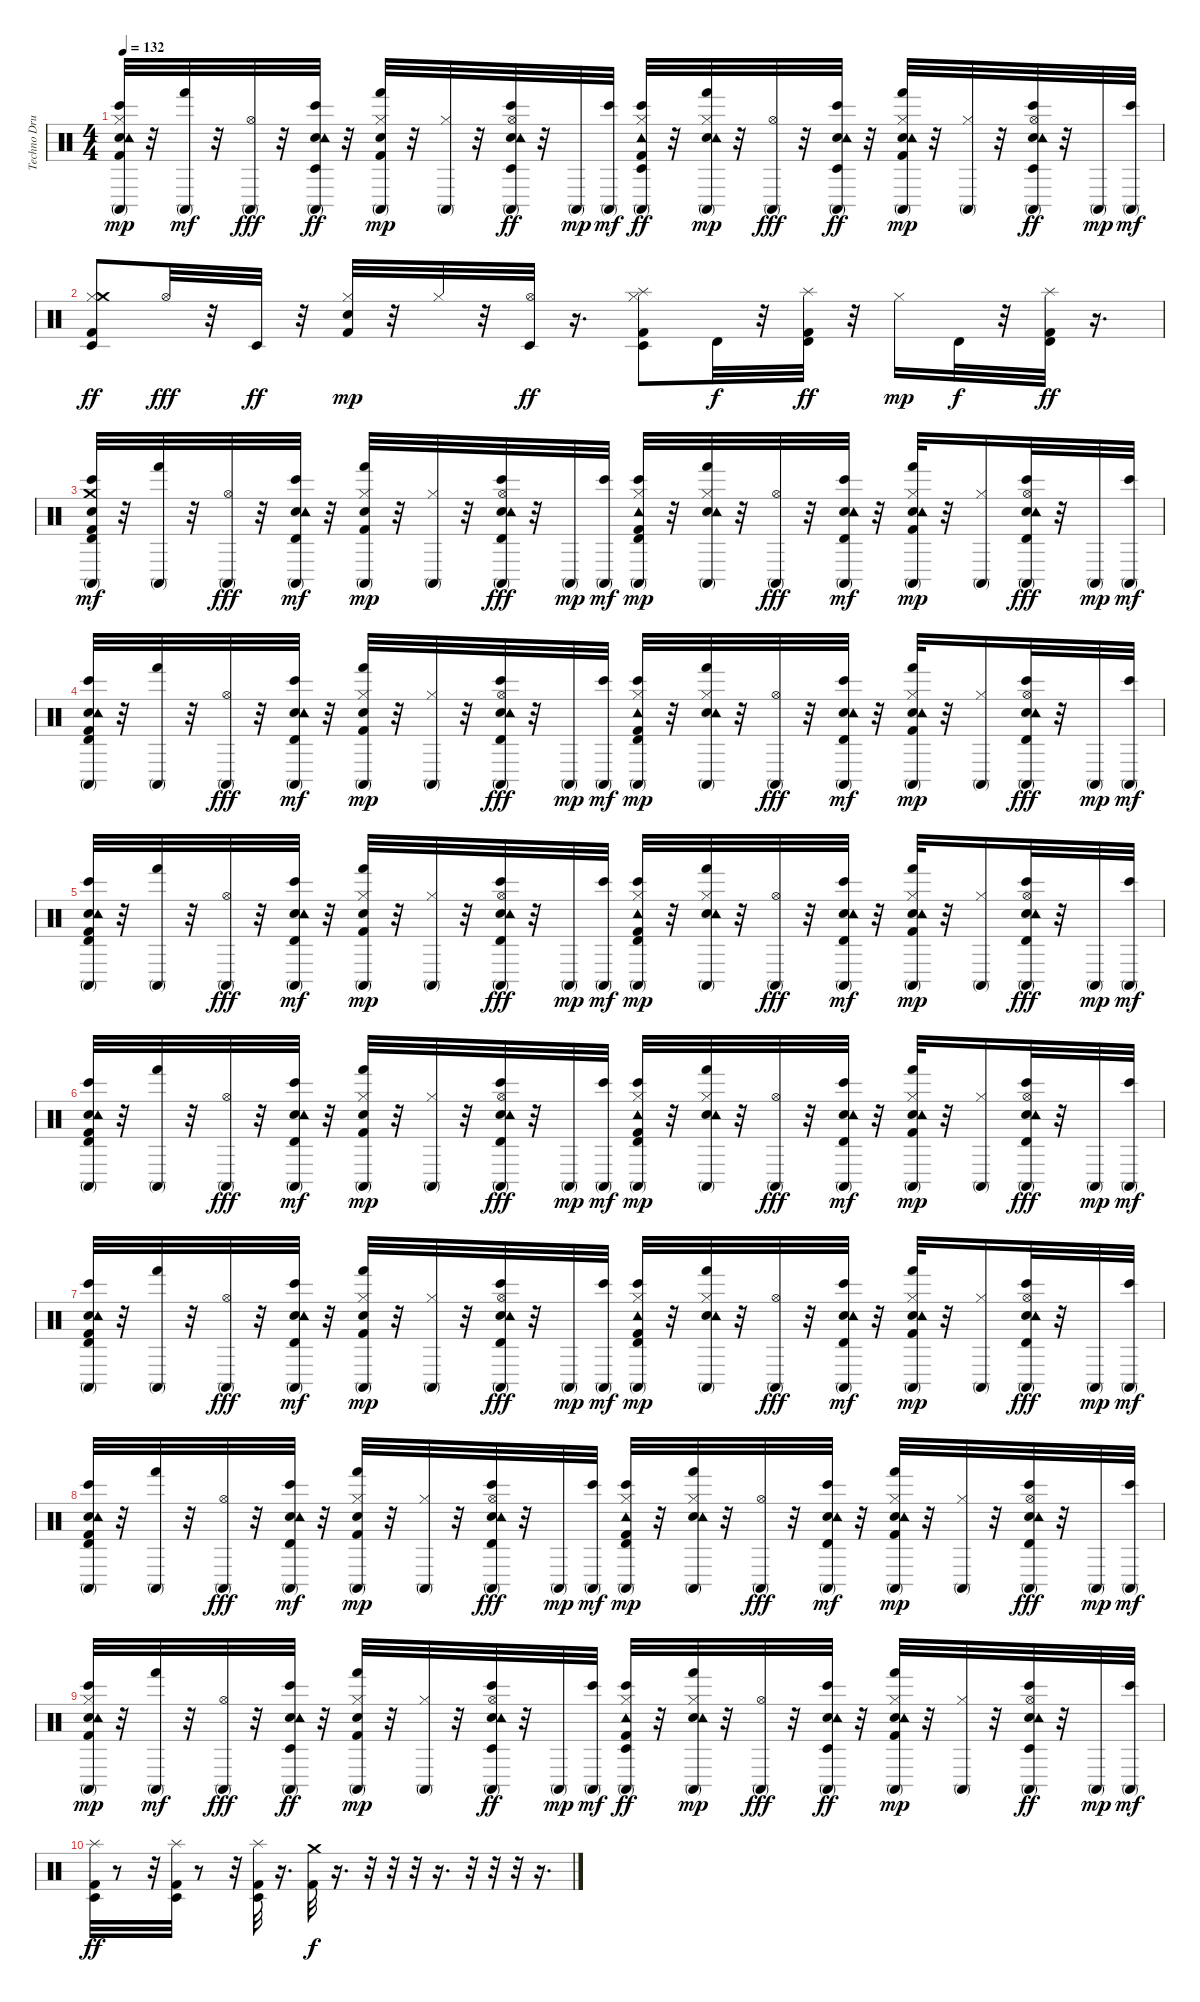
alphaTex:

\track ("Techno Drums" "Techno Dru") {instrument percussion}
\staff {score}
\articulation defaults
\ts (4 4)
\tempo 132
\clef neutral
\ks c
("Kick (hit) 2" "Hand Clap (hit)" "Tambourine (hit)" "Conga high (mute)" "Bongo High (hit)" "Hi-Hat (closed)").32{dy mp} r.32 ("Conga high (mute)" "Hand (hit)").32{dy mf} r.32 ("Conga high (mute)" "Hi-Hat (open)").32{dy fff} r.32 ("Hand Clap (hit)" "Tambourine (hit)" "Conga high (mute)" "Bongo High (hit)" "Timbale low (hit)").32{dy ff} r.32 ("Kick (hit) 2" "Hand Clap (hit)" "Conga high (mute)" "Hand (hit)" "Hi-Hat (closed)").32{dy mp} r.32 ("Conga high (mute)" "Hi-Hat (closed)").32 r.32 ("Hand Clap (hit)" "Tambourine (hit)" "Conga high (mute)" "Bongo High (hit)" "Hi-Hat (open)" "Timbale low (hit)").32{dy ff} r.32 "Conga high (mute)".32{dy mp} ("Conga high (mute)" "Bongo High (hit)").32{dy mf} ("Kick (hit) 2" "Tambourine (hit)" "Conga high (mute)" "Bongo High (hit)" "Hi-Hat (closed)" "Timbale low (hit)").32{dy ff} r.32 ("Hand Clap (hit)" "Tambourine (hit)" "Conga high (mute)" "Hand (hit)" "Hi-Hat (closed)").32{dy mp} r.32 ("Conga high (mute)" "Hi-Hat (open)").32{dy fff} r.32 ("Hand Clap (hit)" "Tambourine (hit)" "Conga high (mute)" "Bongo High (hit)" "Timbale low (hit)").32{dy ff} r.32 ("Kick (hit) 2" "Hand Clap (hit)" "Tambourine (hit)" "Conga high (mute)" "Hand (hit)" "Hi-Hat (closed)").32{dy mp} r.32 ("Conga high (mute)" "Hi-Hat (closed)").32 r.32 ("Hand Clap (hit)" "Tambourine (hit)" "Conga high (mute)" "Bongo High (hit)" "Hi-Hat (open)" "Timbale low (hit)").32{dy ff} r.32 "Conga high (mute)".32{dy mp} ("Conga high (mute)" "Bongo High (hit)").32{dy mf} |
("Kick (hit) 2" "Hi-Hat (closed)" "Timbale low (hit)" "Crash medium (hit)").8{dy ff} "Hi-Hat (open)".32{dy fff} r.32 "Timbale low (hit)".32{dy ff} r.32 ("Kick (hit) 2" "Hand Clap (hit)" "Hi-Hat (closed)").32{dy mp} r.32 "Hi-Hat (closed)".32 r.32 ("Hi-Hat (open)" "Timbale low (hit)").32{dy ff} r.16{d} ("Hi-Hat (closed)" "Timbale low (hit)" "Kick (hit) 2" "Splash (hit)").8 "Timbale high (hit)".32{dy f} r.32 ("Timbale high (hit)" "Kick (hit) 2" "Splash (hit)").32{dy ff} r.32 "Hi-Hat (closed)".16{dy mp} "Timbale high (hit)".32{dy f} r.32 ("Timbale high (hit)" "Kick (hit) 2" "Splash (hit)").32{dy ff} r.16{d} |
("Kick (hit) 2" "Hand Clap (hit)" "Crash medium (hit)" "Conga high (mute)" "Bongo High (hit)" "Timbale high (hit)").32{dy mf} r.32 ("Conga high (mute)" "Hand (hit)").32 r.32 ("Conga high (mute)" "Hi-Hat (open)").32{dy fff} r.32 ("Hand Clap (hit)" "Tambourine (hit)" "Conga high (mute)" "Bongo High (hit)" "Timbale high (hit)").32{dy mf} r.32 ("Kick (hit) 2" "Hand Clap (hit)" "Conga high (mute)" "Hand (hit)" "Hi-Hat (closed)").32{dy mp} r.32 ("Conga high (mute)" "Hi-Hat (closed)").32 r.32 ("Hand Clap (hit)" "Tambourine (hit)" "Conga high (mute)" "Bongo High (hit)" "Timbale high (hit)" "Hi-Hat (open)").32{dy fff} r.32 "Conga high (mute)".32{dy mp} ("Conga high (mute)" "Bongo High (hit)").32{dy mf} ("Kick (hit) 2" "Tambourine (hit)" "Conga high (mute)" "Bongo High (hit)" "Timbale high (hit)" "Hi-Hat (closed)").32{dy mp} r.32 ("Hand Clap (hit)" "Tambourine (hit)" "Conga high (mute)" "Hand (hit)" "Hi-Hat (closed)").32 r.32 ("Conga high (mute)" "Hi-Hat (open)").32{dy fff} r.32 ("Hand Clap (hit)" "Tambourine (hit)" "Conga high (mute)" "Bongo High (hit)" "Timbale high (hit)").32{dy mf} r.32 ("Kick (hit) 2" "Hand Clap (hit)" "Tambourine (hit)" "Conga high (mute)" "Hand (hit)" "Hi-Hat (closed)").32{dy mp} r.32 ("Conga high (mute)" "Hi-Hat (closed)").16 ("Hand Clap (hit)" "Tambourine (hit)" "Conga high (mute)" "Bongo High (hit)" "Timbale high (hit)" "Hi-Hat (open)").32{dy fff} r.32 "Conga high (mute)".32{dy mp} ("Conga high (mute)" "Bongo High (hit)").32{dy mf} |
("Kick (hit) 2" "Hand Clap (hit)" "Tambourine (hit)" "Conga high (mute)" "Bongo High (hit)" "Timbale high (hit)").32 r.32 ("Conga high (mute)" "Hand (hit)").32 r.32 ("Conga high (mute)" "Hi-Hat (open)").32{dy fff} r.32 ("Hand Clap (hit)" "Tambourine (hit)" "Conga high (mute)" "Bongo High (hit)" "Timbale high (hit)").32{dy mf} r.32 ("Kick (hit) 2" "Hand Clap (hit)" "Conga high (mute)" "Hand (hit)" "Hi-Hat (closed)").32{dy mp} r.32 ("Conga high (mute)" "Hi-Hat (closed)").32 r.32 ("Hand Clap (hit)" "Tambourine (hit)" "Conga high (mute)" "Bongo High (hit)" "Timbale high (hit)" "Hi-Hat (open)").32{dy fff} r.32 "Conga high (mute)".32{dy mp} ("Conga high (mute)" "Bongo High (hit)").32{dy mf} ("Kick (hit) 2" "Tambourine (hit)" "Conga high (mute)" "Bongo High (hit)" "Timbale high (hit)" "Hi-Hat (closed)").32{dy mp} r.32 ("Hand Clap (hit)" "Tambourine (hit)" "Conga high (mute)" "Hand (hit)" "Hi-Hat (closed)").32 r.32 ("Conga high (mute)" "Hi-Hat (open)").32{dy fff} r.32 ("Hand Clap (hit)" "Tambourine (hit)" "Conga high (mute)" "Bongo High (hit)" "Timbale high (hit)").32{dy mf} r.32 ("Kick (hit) 2" "Hand Clap (hit)" "Tambourine (hit)" "Conga high (mute)" "Hand (hit)" "Hi-Hat (closed)").32{dy mp} r.32 ("Conga high (mute)" "Hi-Hat (closed)").16 ("Hand Clap (hit)" "Tambourine (hit)" "Conga high (mute)" "Bongo High (hit)" "Timbale high (hit)" "Hi-Hat (open)").32{dy fff} r.32 "Conga high (mute)".32{dy mp} ("Conga high (mute)" "Bongo High (hit)").32{dy mf} |
("Kick (hit) 2" "Hand Clap (hit)" "Tambourine (hit)" "Conga high (mute)" "Bongo High (hit)" "Timbale high (hit)").32 r.32 ("Conga high (mute)" "Hand (hit)").32 r.32 ("Conga high (mute)" "Hi-Hat (open)").32{dy fff} r.32 ("Hand Clap (hit)" "Tambourine (hit)" "Conga high (mute)" "Bongo High (hit)" "Timbale high (hit)").32{dy mf} r.32 ("Kick (hit) 2" "Hand Clap (hit)" "Conga high (mute)" "Hand (hit)" "Hi-Hat (closed)").32{dy mp} r.32 ("Conga high (mute)" "Hi-Hat (closed)").32 r.32 ("Hand Clap (hit)" "Tambourine (hit)" "Conga high (mute)" "Bongo High (hit)" "Timbale high (hit)" "Hi-Hat (open)").32{dy fff} r.32 "Conga high (mute)".32{dy mp} ("Conga high (mute)" "Bongo High (hit)").32{dy mf} ("Kick (hit) 2" "Tambourine (hit)" "Conga high (mute)" "Bongo High (hit)" "Timbale high (hit)" "Hi-Hat (closed)").32{dy mp} r.32 ("Hand Clap (hit)" "Tambourine (hit)" "Conga high (mute)" "Hand (hit)" "Hi-Hat (closed)").32 r.32 ("Conga high (mute)" "Hi-Hat (open)").32{dy fff} r.32 ("Hand Clap (hit)" "Tambourine (hit)" "Conga high (mute)" "Bongo High (hit)" "Timbale high (hit)").32{dy mf} r.32 ("Kick (hit) 2" "Hand Clap (hit)" "Tambourine (hit)" "Conga high (mute)" "Hand (hit)" "Hi-Hat (closed)").32{dy mp} r.32 ("Conga high (mute)" "Hi-Hat (closed)").16 ("Hand Clap (hit)" "Tambourine (hit)" "Conga high (mute)" "Bongo High (hit)" "Timbale high (hit)" "Hi-Hat (open)").32{dy fff} r.32 "Conga high (mute)".32{dy mp} ("Conga high (mute)" "Bongo High (hit)").32{dy mf} |
("Kick (hit) 2" "Hand Clap (hit)" "Tambourine (hit)" "Conga high (mute)" "Bongo High (hit)" "Timbale high (hit)").32 r.32 ("Conga high (mute)" "Hand (hit)").32 r.32 ("Conga high (mute)" "Hi-Hat (open)").32{dy fff} r.32 ("Hand Clap (hit)" "Tambourine (hit)" "Conga high (mute)" "Bongo High (hit)" "Timbale high (hit)").32{dy mf} r.32 ("Kick (hit) 2" "Hand Clap (hit)" "Conga high (mute)" "Hand (hit)" "Hi-Hat (closed)").32{dy mp} r.32 ("Conga high (mute)" "Hi-Hat (closed)").32 r.32 ("Hand Clap (hit)" "Tambourine (hit)" "Conga high (mute)" "Bongo High (hit)" "Timbale high (hit)" "Hi-Hat (open)").32{dy fff} r.32 "Conga high (mute)".32{dy mp} ("Conga high (mute)" "Bongo High (hit)").32{dy mf} ("Kick (hit) 2" "Tambourine (hit)" "Conga high (mute)" "Bongo High (hit)" "Timbale high (hit)" "Hi-Hat (closed)").32{dy mp} r.32 ("Hand Clap (hit)" "Tambourine (hit)" "Conga high (mute)" "Hand (hit)" "Hi-Hat (closed)").32 r.32 ("Conga high (mute)" "Hi-Hat (open)").32{dy fff} r.32 ("Hand Clap (hit)" "Tambourine (hit)" "Conga high (mute)" "Bongo High (hit)" "Timbale high (hit)").32{dy mf} r.32 ("Kick (hit) 2" "Hand Clap (hit)" "Tambourine (hit)" "Conga high (mute)" "Hand (hit)" "Hi-Hat (closed)").32{dy mp} r.32 ("Conga high (mute)" "Hi-Hat (closed)").16 ("Hand Clap (hit)" "Tambourine (hit)" "Conga high (mute)" "Bongo High (hit)" "Timbale high (hit)" "Hi-Hat (open)").32{dy fff} r.32 "Conga high (mute)".32{dy mp} ("Conga high (mute)" "Bongo High (hit)").32{dy mf} |
("Kick (hit) 2" "Hand Clap (hit)" "Tambourine (hit)" "Conga high (mute)" "Bongo High (hit)" "Timbale high (hit)").32 r.32 ("Conga high (mute)" "Hand (hit)").32 r.32 ("Conga high (mute)" "Hi-Hat (open)").32{dy fff} r.32 ("Hand Clap (hit)" "Tambourine (hit)" "Conga high (mute)" "Bongo High (hit)" "Timbale high (hit)").32{dy mf} r.32 ("Kick (hit) 2" "Hand Clap (hit)" "Conga high (mute)" "Hand (hit)" "Hi-Hat (closed)").32{dy mp} r.32 ("Conga high (mute)" "Hi-Hat (closed)").32 r.32 ("Hand Clap (hit)" "Tambourine (hit)" "Conga high (mute)" "Bongo High (hit)" "Timbale high (hit)" "Hi-Hat (open)").32{dy fff} r.32 "Conga high (mute)".32{dy mp} ("Conga high (mute)" "Bongo High (hit)").32{dy mf} ("Kick (hit) 2" "Tambourine (hit)" "Conga high (mute)" "Bongo High (hit)" "Timbale high (hit)" "Hi-Hat (closed)").32{dy mp} r.32 ("Hand Clap (hit)" "Tambourine (hit)" "Conga high (mute)" "Hand (hit)" "Hi-Hat (closed)").32 r.32 ("Conga high (mute)" "Hi-Hat (open)").32{dy fff} r.32 ("Hand Clap (hit)" "Tambourine (hit)" "Conga high (mute)" "Bongo High (hit)" "Timbale high (hit)").32{dy mf} r.32 ("Kick (hit) 2" "Hand Clap (hit)" "Tambourine (hit)" "Conga high (mute)" "Hand (hit)" "Hi-Hat (closed)").32{dy mp} r.32 ("Conga high (mute)" "Hi-Hat (closed)").16 ("Hand Clap (hit)" "Tambourine (hit)" "Conga high (mute)" "Bongo High (hit)" "Timbale high (hit)" "Hi-Hat (open)").32{dy fff} r.32 "Conga high (mute)".32{dy mp} ("Conga high (mute)" "Bongo High (hit)").32{dy mf} |
("Kick (hit) 2" "Hand Clap (hit)" "Tambourine (hit)" "Conga high (mute)" "Bongo High (hit)" "Timbale high (hit)").32 r.32 ("Conga high (mute)" "Hand (hit)").32 r.32 ("Conga high (mute)" "Hi-Hat (open)").32{dy fff} r.32 ("Hand Clap (hit)" "Tambourine (hit)" "Conga high (mute)" "Bongo High (hit)" "Timbale high (hit)").32{dy mf} r.32 ("Kick (hit) 2" "Hand Clap (hit)" "Conga high (mute)" "Hand (hit)" "Hi-Hat (closed)").32{dy mp} r.32 ("Conga high (mute)" "Hi-Hat (closed)").32 r.32 ("Hand Clap (hit)" "Tambourine (hit)" "Conga high (mute)" "Bongo High (hit)" "Timbale high (hit)" "Hi-Hat (open)").32{dy fff} r.32 "Conga high (mute)".32{dy mp} ("Conga high (mute)" "Bongo High (hit)").32{dy mf} ("Kick (hit) 2" "Tambourine (hit)" "Conga high (mute)" "Bongo High (hit)" "Timbale high (hit)" "Hi-Hat (closed)").32{dy mp} r.32 ("Hand Clap (hit)" "Tambourine (hit)" "Conga high (mute)" "Hand (hit)" "Hi-Hat (closed)").32 r.32 ("Conga high (mute)" "Hi-Hat (open)").32{dy fff} r.32 ("Hand Clap (hit)" "Tambourine (hit)" "Conga high (mute)" "Bongo High (hit)" "Timbale high (hit)").32{dy mf} r.32 ("Kick (hit) 2" "Hand Clap (hit)" "Tambourine (hit)" "Conga high (mute)" "Hand (hit)" "Hi-Hat (closed)").32{dy mp} r.32 ("Conga high (mute)" "Hi-Hat (closed)").32 r.32 ("Hand Clap (hit)" "Tambourine (hit)" "Conga high (mute)" "Bongo High (hit)" "Timbale high (hit)" "Hi-Hat (open)").32{dy fff} r.32 "Conga high (mute)".32{dy mp} ("Conga high (mute)" "Bongo High (hit)").32{dy mf} |
("Kick (hit) 2" "Hand Clap (hit)" "Tambourine (hit)" "Conga high (mute)" "Bongo High (hit)" "Hi-Hat (closed)").32{dy mp} r.32 ("Conga high (mute)" "Hand (hit)").32{dy mf} r.32 ("Conga high (mute)" "Hi-Hat (open)").32{dy fff} r.32 ("Hand Clap (hit)" "Tambourine (hit)" "Conga high (mute)" "Bongo High (hit)" "Timbale low (hit)").32{dy ff} r.32 ("Kick (hit) 2" "Hand Clap (hit)" "Conga high (mute)" "Hand (hit)" "Hi-Hat (closed)").32{dy mp} r.32 ("Conga high (mute)" "Hi-Hat (closed)").32 r.32 ("Hand Clap (hit)" "Tambourine (hit)" "Conga high (mute)" "Bongo High (hit)" "Hi-Hat (open)" "Timbale low (hit)").32{dy ff} r.32 "Conga high (mute)".32{dy mp} ("Conga high (mute)" "Bongo High (hit)").32{dy mf} ("Kick (hit) 2" "Tambourine (hit)" "Conga high (mute)" "Bongo High (hit)" "Hi-Hat (closed)" "Timbale low (hit)").32{dy ff} r.32 ("Hand Clap (hit)" "Tambourine (hit)" "Conga high (mute)" "Hand (hit)" "Hi-Hat (closed)").32{dy mp} r.32 ("Conga high (mute)" "Hi-Hat (open)").32{dy fff} r.32 ("Hand Clap (hit)" "Tambourine (hit)" "Conga high (mute)" "Bongo High (hit)" "Timbale low (hit)").32{dy ff} r.32 ("Kick (hit) 2" "Hand Clap (hit)" "Tambourine (hit)" "Conga high (mute)" "Hand (hit)" "Hi-Hat (closed)").32{dy mp} r.32 ("Conga high (mute)" "Hi-Hat (closed)").32 r.32 ("Hand Clap (hit)" "Tambourine (hit)" "Conga high (mute)" "Bongo High (hit)" "Hi-Hat (open)" "Timbale low (hit)").32{dy ff} r.32 "Conga high (mute)".32{dy mp} ("Conga high (mute)" "Bongo High (hit)").32{dy mf} |
("Kick (hit) 2" "Timbale low (hit)" "Splash (hit)").32{dy ff} r.8 r.32 ("Kick (hit) 2" "Timbale low (hit)" "Splash (hit)").32 r.8 r.32 ("Kick (hit) 2" "Timbale low (hit)" "Splash (hit)").32 r.16{d} ("Crash medium (hit)" "Kick (hit) 2").32{dy f} r.16{d} r.32 r.32 r.32 r.16{d} r.32 r.32 r.32 r.16{d}
